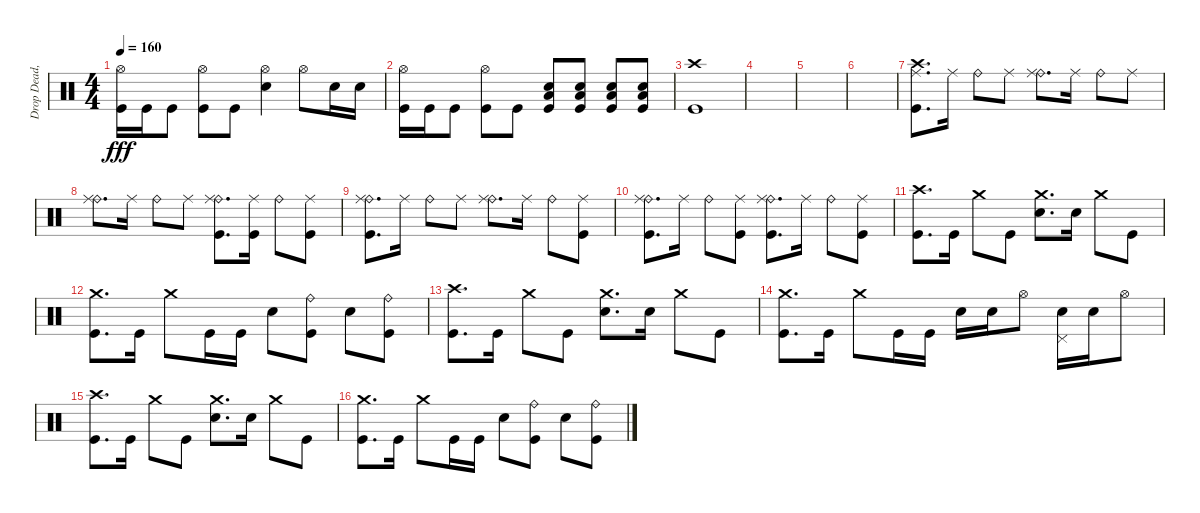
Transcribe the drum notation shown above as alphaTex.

\track ("Drop Dead, Johnny" "Drop Dead,") {instrument percussion}
\staff {score}
\articulation defaults
\ts (4 4)
\tempo 160
\clef neutral
\ks c
("Hi-Hat (open)" "Kick (hit)").16{dy fff} "Kick (hit)".16 "Kick (hit)".8 ("Hi-Hat (open)" "Kick (hit)").8 "Kick (hit)".8 ("Hi-Hat (open)" "Electric Snare (hit)").4 "Hi-Hat (open)".8 "Electric Snare (hit)".16 "Electric Snare (hit)".16 |
("Hi-Hat (open)" "Kick (hit)").16 "Kick (hit)".16 "Kick (hit)".8 ("Hi-Hat (open)" "Kick (hit)").8 "Kick (hit)".8 ("Low Floor Tom (hit)" "Electric Snare (hit)" "Kick (hit)").8 ("Low Floor Tom (hit)" "Electric Snare (hit)" "Kick (hit)").8 ("Low Floor Tom (hit)" "Electric Snare (hit)" "Kick (hit)").8 ("Low Floor Tom (hit)" "Electric Snare (hit)" "Kick (hit)").8 |
("Crash high (hit)" "Kick (hit)").1 |
|
|
|
("Crash high (hit)" "Ride (middle)" "Kick (hit)").8{d} "Ride (middle)".16 "Ride (bell)".8 "Ride (middle)".8 ("Ride (bell)" "Ride (middle)").8{d} "Ride (middle)".16 "Ride (bell)".8 "Ride (middle)".8 |
("Ride (bell)" "Ride (middle)").8{d} "Ride (middle)".16 "Ride (bell)".8 "Ride (middle)".8 ("Ride (bell)" "Ride (middle)" "Kick (hit)").8{d} ("Ride (middle)" "Kick (hit)").16 "Ride (bell)".8 ("Ride (middle)" "Kick (hit)").8 |
("Ride (bell)" "Ride (middle)" "Kick (hit)").8{d} "Ride (middle)".16 "Ride (bell)".8 "Ride (middle)".8 ("Ride (bell)" "Ride (middle)").8{d} "Ride (middle)".16 "Ride (bell)".8 ("Ride (middle)" "Kick (hit)").8 |
("Ride (bell)" "Ride (middle)" "Kick (hit)").8{d} "Ride (middle)".16 "Ride (bell)".8 ("Ride (middle)" "Kick (hit)").8 ("Ride (bell)" "Ride (middle)" "Kick (hit)").8{d} "Ride (middle)".16 "Ride (bell)".8 ("Ride (middle)" "Kick (hit)").8 |
("Crash high (hit)" "Kick (hit)").8{d} "Kick (hit)".16 "Crash medium (hit)".8 "Kick (hit)".8 ("Crash medium (hit)" "Electric Snare (hit)").8{d} "Electric Snare (hit)".16 "Crash medium (hit)".8 "Kick (hit)".8 |
("Crash medium (hit)" "Kick (hit)").8{d} "Kick (hit)".16 "Crash medium (hit)".8 "Kick (hit)".16 "Kick (hit)".16 "Electric Snare (hit)".8 ("Ride (bell)" "Kick (hit)").8 "Electric Snare (hit)".8 ("Ride (bell)" "Kick (hit)").8 |
("Crash high (hit)" "Kick (hit)").8{d} "Kick (hit)".16 "Crash medium (hit)".8 "Kick (hit)".8 ("Crash medium (hit)" "Electric Snare (hit)").8{d} "Electric Snare (hit)".16 "Crash medium (hit)".8 "Kick (hit)".8 |
("Crash medium (hit)" "Kick (hit)").8{d} "Kick (hit)".16 "Crash medium (hit)".8 "Kick (hit)".16 "Kick (hit)".16 "Electric Snare (hit)".16 "Electric Snare (hit)".16 "Hi-Hat (open)".8 ("Pedal Hi-Hat (hit)" "Electric Snare (hit)").16 "Electric Snare (hit)".16 "Hi-Hat (open)".8 |
("Crash high (hit)" "Kick (hit)").8{d} "Kick (hit)".16 "Crash medium (hit)".8 "Kick (hit)".8 ("Crash medium (hit)" "Electric Snare (hit)").8{d} "Electric Snare (hit)".16 "Crash medium (hit)".8 "Kick (hit)".8 |
("Crash medium (hit)" "Kick (hit)").8{d} "Kick (hit)".16 "Crash medium (hit)".8 "Kick (hit)".16 "Kick (hit)".16 "Electric Snare (hit)".8 ("Ride (bell)" "Kick (hit)").8 "Electric Snare (hit)".8 ("Ride (bell)" "Kick (hit)").8
